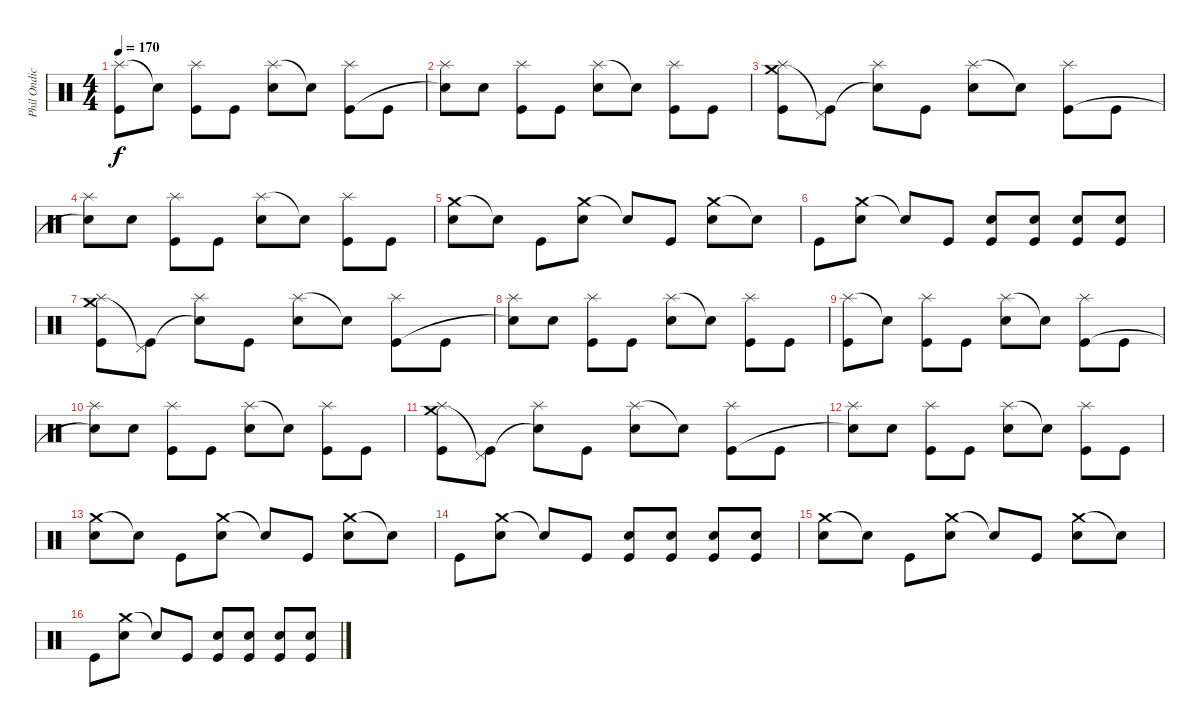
\track ("Phil Ondich (Drums)" "Phil Ondic") {instrument percussion}
\staff {score}
\articulation defaults
\ts (4 4)
\tempo 170
\clef neutral
\ks c
("Splash (hit)" "Kick (hit)").8{dy f} "Snare (hit)"{t}.8 ("Splash (hit)" "Kick (hit)").8 "Kick (hit)".8 ("Splash (hit)" "Electric Snare (hit)").8 "Snare (hit)"{t}.8 ("Splash (hit)" "Kick (hit)").8 "Kick (hit)".8 |
("Splash (hit)" "Snare (hit)"{t}).8 "Electric Snare (hit)".8 ("Splash (hit)" "Kick (hit)").8 "Kick (hit)".8 ("Splash (hit)" "Electric Snare (hit)").8 "Snare (hit)"{t}.8 ("Splash (hit)" "Kick (hit)").8 "Kick (hit)".8 |
("Crash medium (hit)" "Splash (hit)" "Kick (hit)").8 ("Pedal Hi-Hat (hit)"{t} "Kick (hit)").8 ("Splash (hit)" "Snare (hit)"{t}).8 "Kick (hit)".8 ("Splash (hit)" "Electric Snare (hit)").8 "Snare (hit)"{t}.8 ("Splash (hit)" "Kick (hit)").8 "Kick (hit)".8 |
("Splash (hit)" "Snare (hit)"{t}).8 "Electric Snare (hit)".8 ("Splash (hit)" "Kick (hit)").8 "Kick (hit)".8 ("Splash (hit)" "Electric Snare (hit)").8 "Snare (hit)"{t}.8 ("Splash (hit)" "Kick (hit)").8 "Kick (hit)".8 |
("Crash medium (hit)" "Electric Snare (hit)").8 "Snare (hit)"{t}.8 "Kick (hit)".8 ("Crash medium (hit)" "Electric Snare (hit)").8 "Snare (hit)"{t}.8 "Kick (hit)".8 ("Crash medium (hit)" "Electric Snare (hit)").8 "Snare (hit)"{t}.8 |
"Kick (hit)".8 ("Crash medium (hit)" "Electric Snare (hit)").8 "Snare (hit)"{t}.8 "Kick (hit)".8 ("Electric Snare (hit)" "Kick (hit)").8 ("Electric Snare (hit)" "Kick (hit)").8 ("Electric Snare (hit)" "Kick (hit)").8 ("Electric Snare (hit)" "Kick (hit)").8 |
("Crash medium (hit)" "Splash (hit)" "Kick (hit)").8 ("Pedal Hi-Hat (hit)"{t} "Kick (hit)").8 ("Splash (hit)" "Snare (hit)"{t}).8 "Kick (hit)".8 ("Splash (hit)" "Electric Snare (hit)").8 "Snare (hit)"{t}.8 ("Splash (hit)" "Kick (hit)").8 "Kick (hit)".8 |
("Splash (hit)" "Snare (hit)"{t}).8 "Electric Snare (hit)".8 ("Splash (hit)" "Kick (hit)").8 "Kick (hit)".8 ("Splash (hit)" "Electric Snare (hit)").8 "Snare (hit)"{t}.8 ("Splash (hit)" "Kick (hit)").8 "Kick (hit)".8 |
("Splash (hit)" "Kick (hit)").8 "Snare (hit)"{t}.8 ("Splash (hit)" "Kick (hit)").8 "Kick (hit)".8 ("Splash (hit)" "Electric Snare (hit)").8 "Snare (hit)"{t}.8 ("Splash (hit)" "Kick (hit)").8 "Kick (hit)".8 |
("Splash (hit)" "Snare (hit)"{t}).8 "Electric Snare (hit)".8 ("Splash (hit)" "Kick (hit)").8 "Kick (hit)".8 ("Splash (hit)" "Electric Snare (hit)").8 "Snare (hit)"{t}.8 ("Splash (hit)" "Kick (hit)").8 "Kick (hit)".8 |
("Crash medium (hit)" "Splash (hit)" "Kick (hit)").8 ("Pedal Hi-Hat (hit)"{t} "Kick (hit)").8 ("Splash (hit)" "Snare (hit)"{t}).8 "Kick (hit)".8 ("Splash (hit)" "Electric Snare (hit)").8 "Snare (hit)"{t}.8 ("Splash (hit)" "Kick (hit)").8 "Kick (hit)".8 |
("Splash (hit)" "Snare (hit)"{t}).8 "Electric Snare (hit)".8 ("Splash (hit)" "Kick (hit)").8 "Kick (hit)".8 ("Splash (hit)" "Electric Snare (hit)").8 "Snare (hit)"{t}.8 ("Splash (hit)" "Kick (hit)").8 "Kick (hit)".8 |
("Crash medium (hit)" "Electric Snare (hit)").8 "Snare (hit)"{t}.8 "Kick (hit)".8 ("Crash medium (hit)" "Electric Snare (hit)").8 "Snare (hit)"{t}.8 "Kick (hit)".8 ("Crash medium (hit)" "Electric Snare (hit)").8 "Snare (hit)"{t}.8 |
"Kick (hit)".8 ("Crash medium (hit)" "Electric Snare (hit)").8 "Snare (hit)"{t}.8 "Kick (hit)".8 ("Electric Snare (hit)" "Kick (hit)").8 ("Electric Snare (hit)" "Kick (hit)").8 ("Electric Snare (hit)" "Kick (hit)").8 ("Electric Snare (hit)" "Kick (hit)").8 |
("Crash medium (hit)" "Electric Snare (hit)").8 "Snare (hit)"{t}.8 "Kick (hit)".8 ("Crash medium (hit)" "Electric Snare (hit)").8 "Snare (hit)"{t}.8 "Kick (hit)".8 ("Crash medium (hit)" "Electric Snare (hit)").8 "Snare (hit)"{t}.8 |
"Kick (hit)".8 ("Crash medium (hit)" "Electric Snare (hit)").8 "Snare (hit)"{t}.8 "Kick (hit)".8 ("Electric Snare (hit)" "Kick (hit)").8 ("Electric Snare (hit)" "Kick (hit)").8 ("Electric Snare (hit)" "Kick (hit)").8 ("Electric Snare (hit)" "Kick (hit)").8
